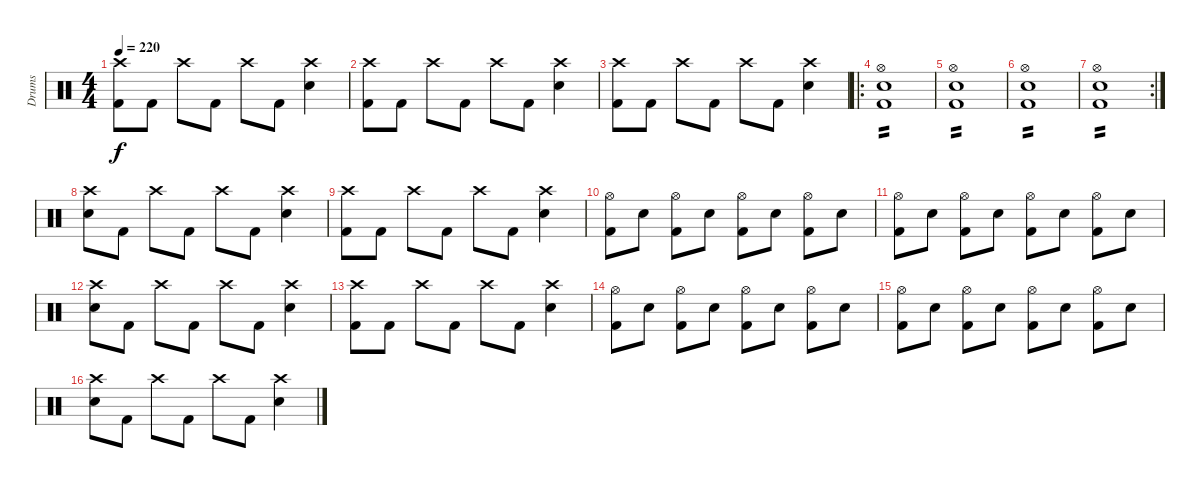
\track ("Drums" "Drums") {instrument percussion}
\staff {score}
\articulation defaults
\ts (4 4)
\tempo 220
\clef neutral
\ks c
("Crash high (hit)" "Kick (hit) 2").8{dy f} "Kick (hit) 2".8 "Crash high (hit)".8 "Kick (hit) 2".8 "Crash high (hit)".8 "Kick (hit) 2".8 ("Crash high (hit)" "Snare (hit) 2").4 |
("Crash high (hit)" "Kick (hit) 2").8 "Kick (hit) 2".8 "Crash high (hit)".8 "Kick (hit) 2".8 "Crash high (hit)".8 "Kick (hit) 2".8 ("Crash high (hit)" "Snare (hit) 2").4 |
("Crash high (hit)" "Kick (hit) 2").8 "Kick (hit) 2".8 "Crash high (hit)".8 "Kick (hit) 2".8 "Crash high (hit)".8 "Kick (hit) 2".8 ("Crash high (hit)" "Snare (hit) 2").4 |
\ro
("Hi-Hat (open)" "Snare (hit) 2" "Kick (hit) 2").1{tp 2} |
("Hi-Hat (open)" "Snare (hit) 2" "Kick (hit) 2").1{tp 2} |
("Hi-Hat (open)" "Snare (hit) 2" "Kick (hit) 2").1{tp 2} |
\rc 2
("Hi-Hat (open)" "Snare (hit) 2" "Kick (hit) 2").1{tp 2} |
("Crash high (hit)" "Snare (hit) 2").8 "Kick (hit) 2".8 "Crash high (hit)".8 "Kick (hit) 2".8 "Crash high (hit)".8 "Kick (hit) 2".8 ("Crash high (hit)" "Snare (hit) 2").4 |
("Crash high (hit)" "Kick (hit) 2").8 "Kick (hit) 2".8 "Crash high (hit)".8 "Kick (hit) 2".8 "Crash high (hit)".8 "Kick (hit) 2".8 ("Crash high (hit)" "Snare (hit) 2").4 |
("Hi-Hat (open)" "Kick (hit) 2").8 "Snare (hit) 2".8 ("Hi-Hat (open)" "Kick (hit) 2").8 "Snare (hit) 2".8 ("Hi-Hat (open)" "Kick (hit) 2").8 "Snare (hit) 2".8 ("Hi-Hat (open)" "Kick (hit) 2").8 "Snare (hit) 2".8 |
("Hi-Hat (open)" "Kick (hit) 2").8 "Snare (hit) 2".8 ("Hi-Hat (open)" "Kick (hit) 2").8 "Snare (hit) 2".8 ("Hi-Hat (open)" "Kick (hit) 2").8 "Snare (hit) 2".8 ("Hi-Hat (open)" "Kick (hit) 2").8 "Snare (hit) 2".8 |
("Crash high (hit)" "Snare (hit) 2").8 "Kick (hit) 2".8 "Crash high (hit)".8 "Kick (hit) 2".8 "Crash high (hit)".8 "Kick (hit) 2".8 ("Crash high (hit)" "Snare (hit) 2").4 |
("Crash high (hit)" "Kick (hit) 2").8 "Kick (hit) 2".8 "Crash high (hit)".8 "Kick (hit) 2".8 "Crash high (hit)".8 "Kick (hit) 2".8 ("Crash high (hit)" "Snare (hit) 2").4 |
("Hi-Hat (open)" "Kick (hit) 2").8 "Snare (hit) 2".8 ("Hi-Hat (open)" "Kick (hit) 2").8 "Snare (hit) 2".8 ("Hi-Hat (open)" "Kick (hit) 2").8 "Snare (hit) 2".8 ("Hi-Hat (open)" "Kick (hit) 2").8 "Snare (hit) 2".8 |
("Hi-Hat (open)" "Kick (hit) 2").8 "Snare (hit) 2".8 ("Hi-Hat (open)" "Kick (hit) 2").8 "Snare (hit) 2".8 ("Hi-Hat (open)" "Kick (hit) 2").8 "Snare (hit) 2".8 ("Hi-Hat (open)" "Kick (hit) 2").8 "Snare (hit) 2".8 |
("Crash high (hit)" "Snare (hit) 2").8 "Kick (hit) 2".8 "Crash high (hit)".8 "Kick (hit) 2".8 "Crash high (hit)".8 "Kick (hit) 2".8 ("Crash high (hit)" "Snare (hit) 2").4
